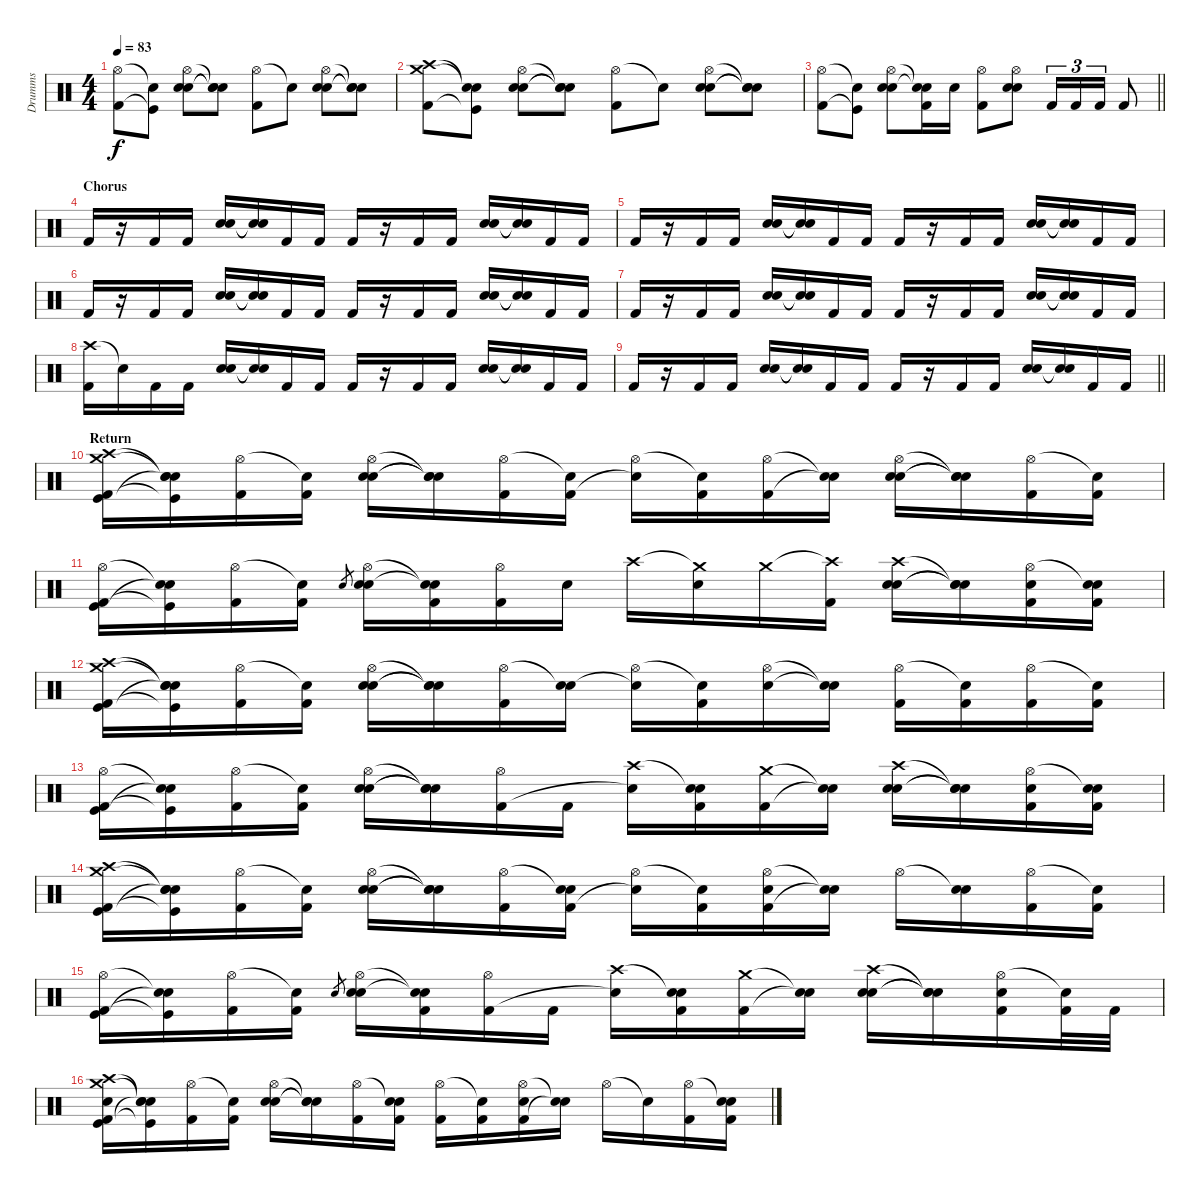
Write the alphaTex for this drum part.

\track ("Drumms" "Drumms") {instrument percussion}
\staff {score}
\articulation defaults
\ts (4 4)
\tempo 83
\clef neutral
\ks c
("Hi-Hat (open)" "Kick (hit) 2").8{dy f} ("Snare (hit)"{t} "Kick (hit)"{t}).8 ("Hi-Hat (open)" "Electric Snare (hit)" "Electric Snare (hit)").8 ("Snare (hit)"{t} "Snare (hit)"{t} "Snare (hit)"{t}).8 ("Hi-Hat (open)" "Kick (hit) 2").8 "Snare (hit)"{t}.8 ("Hi-Hat (open)" "Electric Snare (hit)" "Electric Snare (hit)").8 ("Snare (hit)"{t} "Snare (hit)"{t} "Snare (hit)"{t}).8 |
("Crash high (hit)" "Crash medium (hit)" "Kick (hit) 2").8 ("Snare (hit)"{t} "Snare (hit)"{t} "Kick (hit)"{t}).8 ("Hi-Hat (open)" "Electric Snare (hit)" "Electric Snare (hit)").8 ("Snare (hit)"{t} "Snare (hit)"{t} "Snare (hit)"{t}).8 ("Hi-Hat (open)" "Kick (hit) 2").8 "Snare (hit)"{t}.8 ("Hi-Hat (open)" "Electric Snare (hit)" "Electric Snare (hit)").8 ("Snare (hit)"{t} "Snare (hit)"{t} "Snare (hit)"{t}).8 |
\barLineRight lightlight
("Hi-Hat (open)" "Kick (hit) 2").8 ("Snare (hit)"{t} "Kick (hit)"{t}).8 ("Hi-Hat (open)" "Electric Snare (hit)" "Electric Snare (hit)").8 ("Snare (hit)"{t} "Kick (hit) 2" "Snare (hit)"{t}).16 "Electric Snare (hit)".16 ("Hi-Hat (open)" "Kick (hit) 2").8 ("Hi-Hat (open)" "Electric Snare (hit)" "Electric Snare (hit)").8 "Kick (hit) 2".16{tu (3 2)} "Kick (hit) 2".16{tu (3 2)} "Kick (hit) 2".16{tu (3 2)} "Kick (hit) 2".8 |
\section ("" "Chorus")
"Kick (hit) 2".16 r.16 "Kick (hit) 2".16 "Kick (hit) 2".16 ("Electric Snare (hit)" "Electric Snare (hit)").16 ("Snare (hit)"{t} "Snare (hit)"{t}).16 "Kick (hit) 2".16 "Kick (hit) 2".16 "Kick (hit) 2".16 r.16 "Kick (hit) 2".16 "Kick (hit) 2".16 ("Electric Snare (hit)" "Electric Snare (hit)").16 ("Snare (hit)"{t} "Snare (hit)"{t}).16 "Kick (hit) 2".16 "Kick (hit) 2".16 |
"Kick (hit) 2".16 r.16 "Kick (hit) 2".16 "Kick (hit) 2".16 ("Electric Snare (hit)" "Electric Snare (hit)").16 ("Snare (hit)"{t} "Snare (hit)"{t}).16 "Kick (hit) 2".16 "Kick (hit) 2".16 "Kick (hit) 2".16 r.16 "Kick (hit) 2".16 "Kick (hit) 2".16 ("Electric Snare (hit)" "Electric Snare (hit)").16 ("Snare (hit)"{t} "Snare (hit)"{t}).16 "Kick (hit) 2".16 "Kick (hit) 2".16 |
"Kick (hit) 2".16 r.16 "Kick (hit) 2".16 "Kick (hit) 2".16 ("Electric Snare (hit)" "Electric Snare (hit)").16 ("Snare (hit)"{t} "Snare (hit)"{t}).16 "Kick (hit) 2".16 "Kick (hit) 2".16 "Kick (hit) 2".16 r.16 "Kick (hit) 2".16 "Kick (hit) 2".16 ("Electric Snare (hit)" "Electric Snare (hit)").16 ("Snare (hit)"{t} "Snare (hit)"{t}).16 "Kick (hit) 2".16 "Kick (hit) 2".16 |
"Kick (hit) 2".16 r.16 "Kick (hit) 2".16 "Kick (hit) 2".16 ("Electric Snare (hit)" "Electric Snare (hit)").16 ("Snare (hit)"{t} "Snare (hit)"{t}).16 "Kick (hit) 2".16 "Kick (hit) 2".16 "Kick (hit) 2".16 r.16 "Kick (hit) 2".16 "Kick (hit) 2".16 ("Electric Snare (hit)" "Electric Snare (hit)").16 ("Snare (hit)"{t} "Snare (hit)"{t}).16 "Kick (hit) 2".16 "Kick (hit) 2".16 |
("Crash high (hit)" "Kick (hit) 2").16 "Snare (hit)"{t}.16 "Kick (hit) 2".16 "Kick (hit) 2".16 ("Electric Snare (hit)" "Electric Snare (hit)").16 ("Snare (hit)"{t} "Snare (hit)"{t}).16 "Kick (hit) 2".16 "Kick (hit) 2".16 "Kick (hit) 2".16 r.16 "Kick (hit) 2".16 "Kick (hit) 2".16 ("Electric Snare (hit)" "Electric Snare (hit)").16 ("Snare (hit)"{t} "Snare (hit)"{t}).16 "Kick (hit) 2".16 "Kick (hit) 2".16 |
\barLineRight lightlight "Kick (hit) 2".16
r.16 "Kick (hit) 2".16 "Kick (hit) 2".16 ("Electric Snare (hit)" "Electric Snare (hit)").16 ("Snare (hit)"{t} "Snare (hit)"{t}).16 "Kick (hit) 2".16 "Kick (hit) 2".16 "Kick (hit) 2".16 r.16 "Kick (hit) 2".16 "Kick (hit) 2".16 ("Electric Snare (hit)" "Electric Snare (hit)").16 ("Snare (hit)"{t} "Snare (hit)"{t}).16 "Kick (hit) 2".16 "Kick (hit) 2".16 |
\section ("" "Return")
("Crash high (hit)" "Crash medium (hit)" "Kick (hit) 2" "Kick (hit)").16 ("Snare (hit)"{t} "Snare (hit)"{t} "Kick (hit)"{t} "Snare (hit)"{t}).16 ("Hi-Hat (open)" "Kick (hit) 2").16 ("Snare (hit)"{t} "Kick (hit) 2").16 ("Hi-Hat (open)" "Electric Snare (hit)" "Electric Snare (hit)").16 ("Snare (hit)"{t} "Snare (hit)"{t} "Snare (hit)"{t}).16 ("Hi-Hat (open)" "Kick (hit) 2").16 ("Snare (hit)"{t} "Kick (hit) 2").16 ("Hi-Hat (open)" "Snare (hit)"{t}).16 ("Snare (hit)"{t} "Kick (hit) 2").16 ("Hi-Hat (open)" "Kick (hit) 2").16 ("Snare (hit)"{t} "Snare (hit)"{t}).16 ("Hi-Hat (open)" "Electric Snare (hit)" "Electric Snare (hit)").16 ("Snare (hit)"{t} "Snare (hit)"{t} "Snare (hit)"{t}).16 ("Hi-Hat (open)" "Kick (hit) 2").16 ("Snare (hit)"{t} "Kick (hit) 2").16 |
("Hi-Hat (open)" "Kick (hit) 2" "Kick (hit)").16 ("Snare (hit)"{t} "Kick (hit)"{t} "Snare (hit)"{t}).16 ("Hi-Hat (open)" "Kick (hit) 2").16 ("Snare (hit)"{t} "Kick (hit) 2").16 "Electric Snare (hit)".8{gr} ("Hi-Hat (open)" "Electric Snare (hit)" "Electric Snare (hit)").16 ("Snare (hit)"{t} "Kick (hit) 2" "Snare (hit)"{t}).16 ("Hi-Hat (open)" "Kick (hit) 2").16 "Electric Snare (hit)".16 "Crash high (hit)".16 ("Crash medium (hit)"{t} "Electric Snare (hit)").16 "Crash medium (hit)".16 ("Crash high (hit)"{t} "Kick (hit) 2").16 ("Crash high (hit)" "Electric Snare (hit)" "Electric Snare (hit)").16 ("Snare (hit)"{t} "Snare (hit)"{t} "Snare (hit)"{t}).16 ("Hi-Hat (open)" "Kick (hit) 2" "Electric Snare (hit)").16 ("Snare (hit)"{t} "Kick (hit) 2" "Electric Snare (hit)").16 |
("Crash high (hit)" "Crash medium (hit)" "Kick (hit) 2" "Kick (hit)").16 ("Snare (hit)"{t} "Snare (hit)"{t} "Kick (hit)"{t} "Snare (hit)"{t}).16 ("Hi-Hat (open)" "Kick (hit) 2").16 ("Snare (hit)"{t} "Kick (hit) 2").16 ("Hi-Hat (open)" "Electric Snare (hit)" "Electric Snare (hit)").16 ("Snare (hit)"{t} "Snare (hit)"{t} "Snare (hit)"{t}).16 ("Hi-Hat (open)" "Kick (hit) 2").16 ("Snare (hit)"{t} "Electric Snare (hit)").16 ("Hi-Hat (open)" "Snare (hit)"{t}).16 ("Snare (hit)"{t} "Kick (hit) 2").16 ("Hi-Hat (open)" "Electric Snare (hit)").16 ("Snare (hit)"{t} "Snare (hit)"{t}).16 ("Hi-Hat (open)" "Kick (hit) 2").16 ("Snare (hit)"{t} "Kick (hit) 2").16 ("Hi-Hat (open)" "Kick (hit) 2").16 ("Snare (hit)"{t} "Kick (hit) 2").16 |
("Hi-Hat (open)" "Kick (hit) 2" "Kick (hit)").16 ("Snare (hit)"{t} "Kick (hit)"{t} "Snare (hit)"{t}).16 ("Hi-Hat (open)" "Kick (hit) 2").16 ("Snare (hit)"{t} "Kick (hit) 2").16 ("Hi-Hat (open)" "Electric Snare (hit)" "Electric Snare (hit)").16 ("Snare (hit)"{t} "Snare (hit)"{t} "Snare (hit)"{t}).16 ("Hi-Hat (open)" "Kick (hit) 2").16 "Kick (hit) 2".16 ("Crash high (hit)" "Snare (hit)"{t}).16 ("Snare (hit)"{t} "Kick (hit) 2" "Electric Snare (hit)").16 ("Crash medium (hit)" "Kick (hit) 2").16 ("Snare (hit)"{t} "Snare (hit)"{t}).16 ("Crash high (hit)" "Electric Snare (hit)" "Electric Snare (hit)").16 ("Snare (hit)"{t} "Snare (hit)"{t} "Snare (hit)"{t}).16 ("Hi-Hat (open)" "Kick (hit) 2" "Electric Snare (hit)").16 ("Snare (hit)"{t} "Kick (hit) 2" "Electric Snare (hit)").16 |
("Crash high (hit)" "Crash medium (hit)" "Kick (hit) 2" "Kick (hit)").16 ("Snare (hit)"{t} "Snare (hit)"{t} "Kick (hit)"{t} "Snare (hit)"{t}).16 ("Hi-Hat (open)" "Kick (hit) 2").16 ("Snare (hit)"{t} "Kick (hit) 2").16 ("Hi-Hat (open)" "Electric Snare (hit)" "Electric Snare (hit)").16 ("Snare (hit)"{t} "Snare (hit)"{t} "Snare (hit)"{t}).16 ("Hi-Hat (open)" "Kick (hit) 2").16 ("Snare (hit)"{t} "Kick (hit) 2" "Electric Snare (hit)").16 ("Hi-Hat (open)" "Snare (hit)"{t}).16 ("Snare (hit)"{t} "Kick (hit) 2").16 ("Hi-Hat (open)" "Kick (hit) 2" "Electric Snare (hit)").16 ("Snare (hit)"{t} "Snare (hit)"{t}).16 "Hi-Hat (open)".16 ("Snare (hit)"{t} "Electric Snare (hit)").16 ("Hi-Hat (open)" "Kick (hit) 2").16 ("Snare (hit)"{t} "Kick (hit) 2").16 |
("Hi-Hat (open)" "Kick (hit) 2" "Kick (hit)").16 ("Snare (hit)"{t} "Kick (hit)"{t} "Snare (hit)"{t}).16 ("Hi-Hat (open)" "Kick (hit) 2").16 ("Snare (hit)"{t} "Kick (hit) 2").16 "Electric Snare (hit)".8{gr} ("Hi-Hat (open)" "Electric Snare (hit)" "Electric Snare (hit)").16 ("Snare (hit)"{t} "Kick (hit) 2" "Snare (hit)"{t}).16 ("Hi-Hat (open)" "Kick (hit) 2").16 "Kick (hit) 2".16 ("Crash high (hit)" "Snare (hit)"{t}).16 ("Snare (hit)"{t} "Kick (hit) 2" "Electric Snare (hit)").16 ("Crash medium (hit)" "Kick (hit) 2").16 ("Snare (hit)"{t} "Snare (hit)"{t}).16 ("Crash high (hit)" "Electric Snare (hit)" "Electric Snare (hit)").16 ("Snare (hit)"{t} "Snare (hit)"{t} "Snare (hit)"{t}).16 ("Hi-Hat (open)" "Kick (hit) 2" "Electric Snare (hit)").16 ("Snare (hit)"{t} "Kick (hit) 2").32 "Kick (hit) 2".32 |
("Crash high (hit)" "Crash medium (hit)" "Kick (hit) 2" "Kick (hit)" "Electric Snare (hit)").16 ("Snare (hit)"{t} "Snare (hit)"{t} "Kick (hit)"{t} "Snare (hit)"{t}).16 ("Hi-Hat (open)" "Kick (hit) 2").16 ("Snare (hit)"{t} "Kick (hit) 2").16 ("Hi-Hat (open)" "Electric Snare (hit)" "Electric Snare (hit)").16 ("Snare (hit)"{t} "Snare (hit)"{t} "Snare (hit)"{t}).16 ("Hi-Hat (open)" "Kick (hit) 2").16 ("Snare (hit)"{t} "Kick (hit) 2" "Electric Snare (hit)").16 ("Hi-Hat (open)" "Kick (hit) 2").16 ("Snare (hit)"{t} "Kick (hit) 2").16 ("Hi-Hat (open)" "Kick (hit) 2" "Electric Snare (hit)").16 ("Snare (hit)"{t} "Snare (hit)"{t}).16 "Hi-Hat (open)".16 "Snare (hit)"{t}.16 ("Hi-Hat (open)" "Kick (hit) 2").16 ("Snare (hit)"{t} "Kick (hit) 2" "Electric Snare (hit)").16
